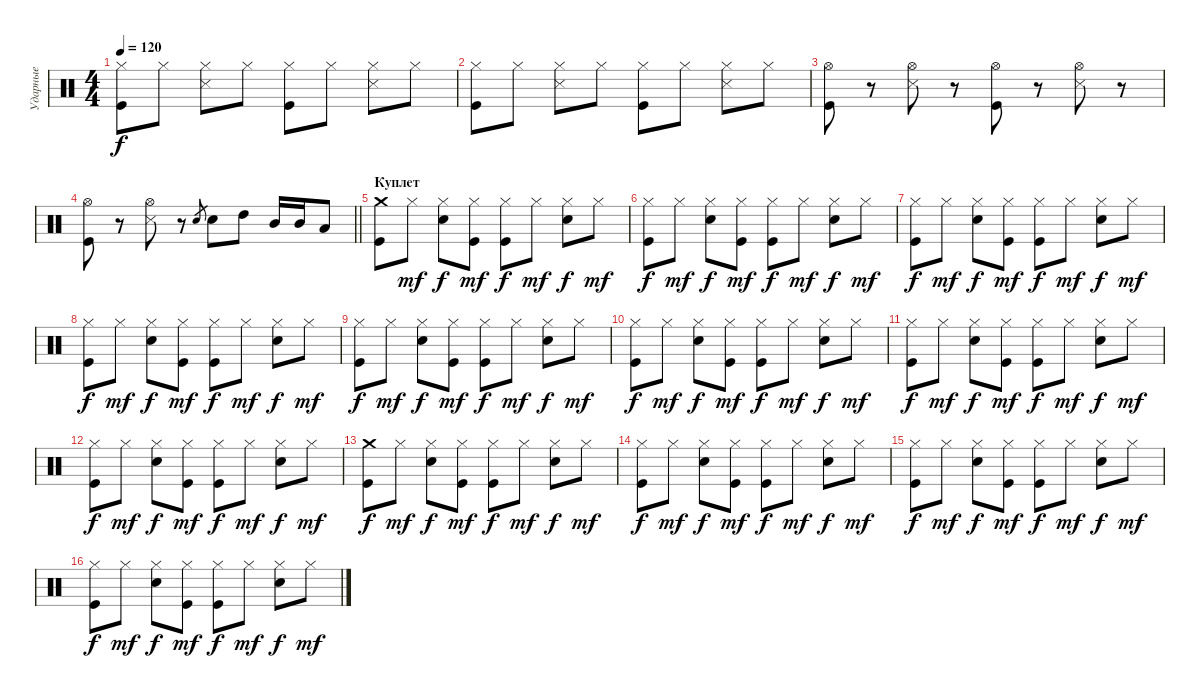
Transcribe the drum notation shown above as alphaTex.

\track ("Ударные" "Ударные") {instrument percussion}
\staff {score}
\articulation defaults
\ts (4 4)
\tempo 120
\clef neutral
\ks c
("Hi-Hat (closed)" "Kick (hit)").8{dy f} "Hi-Hat (closed)".8 ("Hi-Hat (closed)" "Metronome (hit)").8 "Hi-Hat (closed)".8 ("Hi-Hat (closed)" "Kick (hit)").8 "Hi-Hat (closed)".8 ("Hi-Hat (closed)" "Metronome (hit)").8 "Hi-Hat (closed)".8 |
("Hi-Hat (closed)" "Kick (hit)").8 "Hi-Hat (closed)".8 ("Hi-Hat (closed)" "Metronome (hit)").8 "Hi-Hat (closed)".8 ("Hi-Hat (closed)" "Kick (hit)").8 "Hi-Hat (closed)".8 ("Hi-Hat (closed)" "Metronome (hit)").8 "Hi-Hat (closed)".8 |
("Hi-Hat (open)" "Kick (hit)").8 r.8 ("Hi-Hat (open)" "Metronome (hit)").8 r.8 ("Hi-Hat (open)" "Kick (hit)").8 r.8 ("Hi-Hat (open)" "Metronome (hit)").8 r.8 |
\barLineRight lightlight
("Hi-Hat (open)" "Kick (hit)").8 r.8 ("Hi-Hat (open)" "Metronome (hit)").8 r.8 "Electric Snare (hit)".8{gr} "Electric Snare (hit)".8 "High Tom (hit)".8 "Mid Tom (hit)".16 "Mid Tom (hit)".16 "Low Tom (hit)".8 |
\section ("" "Куплет")
("Crash medium (hit)" "Kick (hit)").8 "Hi-Hat (closed)".8{dy mf} ("Hi-Hat (closed)" "Electric Snare (hit)").8{dy f} ("Hi-Hat (closed)" "Kick (hit)").8{dy mf} ("Hi-Hat (closed)" "Kick (hit)").8{dy f} "Hi-Hat (closed)".8{dy mf} ("Hi-Hat (closed)" "Electric Snare (hit)").8{dy f} "Hi-Hat (closed)".8{dy mf} |
("Hi-Hat (closed)" "Kick (hit)").8{dy f} "Hi-Hat (closed)".8{dy mf} ("Hi-Hat (closed)" "Electric Snare (hit)").8{dy f} ("Hi-Hat (closed)" "Kick (hit)").8{dy mf} ("Hi-Hat (closed)" "Kick (hit)").8{dy f} "Hi-Hat (closed)".8{dy mf} ("Hi-Hat (closed)" "Electric Snare (hit)").8{dy f} "Hi-Hat (closed)".8{dy mf} |
("Hi-Hat (closed)" "Kick (hit)").8{dy f} "Hi-Hat (closed)".8{dy mf} ("Hi-Hat (closed)" "Electric Snare (hit)").8{dy f} ("Hi-Hat (closed)" "Kick (hit)").8{dy mf} ("Hi-Hat (closed)" "Kick (hit)").8{dy f} "Hi-Hat (closed)".8{dy mf} ("Hi-Hat (closed)" "Electric Snare (hit)").8{dy f} "Hi-Hat (closed)".8{dy mf} |
("Hi-Hat (closed)" "Kick (hit)").8{dy f} "Hi-Hat (closed)".8{dy mf} ("Hi-Hat (closed)" "Electric Snare (hit)").8{dy f} ("Hi-Hat (closed)" "Kick (hit)").8{dy mf} ("Hi-Hat (closed)" "Kick (hit)").8{dy f} "Hi-Hat (closed)".8{dy mf} ("Hi-Hat (closed)" "Electric Snare (hit)").8{dy f} "Hi-Hat (closed)".8{dy mf} |
("Hi-Hat (closed)" "Kick (hit)").8{dy f} "Hi-Hat (closed)".8{dy mf} ("Hi-Hat (closed)" "Electric Snare (hit)").8{dy f} ("Hi-Hat (closed)" "Kick (hit)").8{dy mf} ("Hi-Hat (closed)" "Kick (hit)").8{dy f} "Hi-Hat (closed)".8{dy mf} ("Hi-Hat (closed)" "Electric Snare (hit)").8{dy f} "Hi-Hat (closed)".8{dy mf} |
("Hi-Hat (closed)" "Kick (hit)").8{dy f} "Hi-Hat (closed)".8{dy mf} ("Hi-Hat (closed)" "Electric Snare (hit)").8{dy f} ("Hi-Hat (closed)" "Kick (hit)").8{dy mf} ("Hi-Hat (closed)" "Kick (hit)").8{dy f} "Hi-Hat (closed)".8{dy mf} ("Hi-Hat (closed)" "Electric Snare (hit)").8{dy f} "Hi-Hat (closed)".8{dy mf} |
("Hi-Hat (closed)" "Kick (hit)").8{dy f} "Hi-Hat (closed)".8{dy mf} ("Hi-Hat (closed)" "Electric Snare (hit)").8{dy f} ("Hi-Hat (closed)" "Kick (hit)").8{dy mf} ("Hi-Hat (closed)" "Kick (hit)").8{dy f} "Hi-Hat (closed)".8{dy mf} ("Hi-Hat (closed)" "Electric Snare (hit)").8{dy f} "Hi-Hat (closed)".8{dy mf} |
("Hi-Hat (closed)" "Kick (hit)").8{dy f} "Hi-Hat (closed)".8{dy mf} ("Hi-Hat (closed)" "Electric Snare (hit)").8{dy f} ("Hi-Hat (closed)" "Kick (hit)").8{dy mf} ("Hi-Hat (closed)" "Kick (hit)").8{dy f} "Hi-Hat (closed)".8{dy mf} ("Hi-Hat (closed)" "Electric Snare (hit)").8{dy f} "Hi-Hat (closed)".8{dy mf} |
("Crash medium (hit)" "Kick (hit)").8{dy f} "Hi-Hat (closed)".8{dy mf} ("Hi-Hat (closed)" "Electric Snare (hit)").8{dy f} ("Hi-Hat (closed)" "Kick (hit)").8{dy mf} ("Hi-Hat (closed)" "Kick (hit)").8{dy f} "Hi-Hat (closed)".8{dy mf} ("Hi-Hat (closed)" "Electric Snare (hit)").8{dy f} "Hi-Hat (closed)".8{dy mf} |
("Hi-Hat (closed)" "Kick (hit)").8{dy f} "Hi-Hat (closed)".8{dy mf} ("Hi-Hat (closed)" "Electric Snare (hit)").8{dy f} ("Hi-Hat (closed)" "Kick (hit)").8{dy mf} ("Hi-Hat (closed)" "Kick (hit)").8{dy f} "Hi-Hat (closed)".8{dy mf} ("Hi-Hat (closed)" "Electric Snare (hit)").8{dy f} "Hi-Hat (closed)".8{dy mf} |
("Hi-Hat (closed)" "Kick (hit)").8{dy f} "Hi-Hat (closed)".8{dy mf} ("Hi-Hat (closed)" "Electric Snare (hit)").8{dy f} ("Hi-Hat (closed)" "Kick (hit)").8{dy mf} ("Hi-Hat (closed)" "Kick (hit)").8{dy f} "Hi-Hat (closed)".8{dy mf} ("Hi-Hat (closed)" "Electric Snare (hit)").8{dy f} "Hi-Hat (closed)".8{dy mf} |
("Hi-Hat (closed)" "Kick (hit)").8{dy f} "Hi-Hat (closed)".8{dy mf} ("Hi-Hat (closed)" "Electric Snare (hit)").8{dy f} ("Hi-Hat (closed)" "Kick (hit)").8{dy mf} ("Hi-Hat (closed)" "Kick (hit)").8{dy f} "Hi-Hat (closed)".8{dy mf} ("Hi-Hat (closed)" "Electric Snare (hit)").8{dy f} "Hi-Hat (closed)".8{dy mf}
